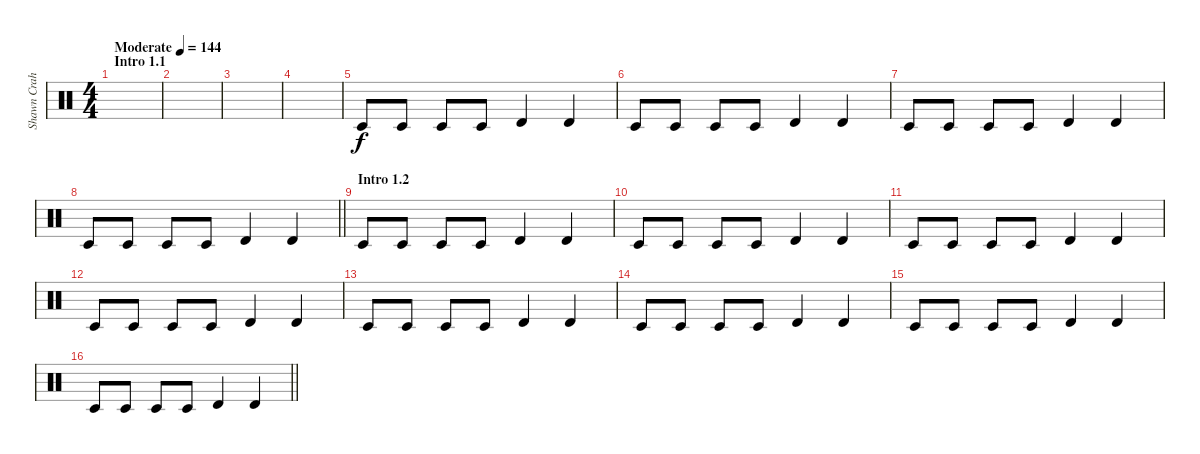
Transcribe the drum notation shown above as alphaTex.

\track ("Shawn Crahan" "Shawn Crah") {instrument percussion}
\staff {score}
\articulation defaults
\ts (4 4)
\section ("" "Intro 1.1")
\tempo (144 "Moderate")
\clef neutral
\ks c
|
|
|
|
"Timbale low (hit)".8 "Timbale low (hit)".8 "Timbale low (hit)".8 "Timbale low (hit)".8 "Timbale high (hit)".4 "Timbale high (hit)".4 |
"Timbale low (hit)".8 "Timbale low (hit)".8 "Timbale low (hit)".8 "Timbale low (hit)".8 "Timbale high (hit)".4 "Timbale high (hit)".4 |
"Timbale low (hit)".8 "Timbale low (hit)".8 "Timbale low (hit)".8 "Timbale low (hit)".8 "Timbale high (hit)".4 "Timbale high (hit)".4 |
\barLineRight lightlight "Timbale low (hit)".8 "Timbale low (hit)".8 "Timbale low (hit)".8 "Timbale low (hit)".8 "Timbale high (hit)".4 "Timbale high (hit)".4
|
\section ("" "Intro 1.2")
"Timbale low (hit)".8 "Timbale low (hit)".8 "Timbale low (hit)".8 "Timbale low (hit)".8 "Timbale high (hit)".4 "Timbale high (hit)".4 |
"Timbale low (hit)".8 "Timbale low (hit)".8 "Timbale low (hit)".8 "Timbale low (hit)".8 "Timbale high (hit)".4 "Timbale high (hit)".4 |
"Timbale low (hit)".8 "Timbale low (hit)".8 "Timbale low (hit)".8 "Timbale low (hit)".8 "Timbale high (hit)".4 "Timbale high (hit)".4 |
"Timbale low (hit)".8 "Timbale low (hit)".8 "Timbale low (hit)".8 "Timbale low (hit)".8 "Timbale high (hit)".4 "Timbale high (hit)".4 |
"Timbale low (hit)".8 "Timbale low (hit)".8 "Timbale low (hit)".8 "Timbale low (hit)".8 "Timbale high (hit)".4 "Timbale high (hit)".4 |
"Timbale low (hit)".8 "Timbale low (hit)".8 "Timbale low (hit)".8 "Timbale low (hit)".8 "Timbale high (hit)".4 "Timbale high (hit)".4 |
"Timbale low (hit)".8 "Timbale low (hit)".8 "Timbale low (hit)".8 "Timbale low (hit)".8 "Timbale high (hit)".4 "Timbale high (hit)".4 |
\barLineRight lightlight "Timbale low (hit)".8 "Timbale low (hit)".8 "Timbale low (hit)".8 "Timbale low (hit)".8 "Timbale high (hit)".4 "Timbale high (hit)".4
